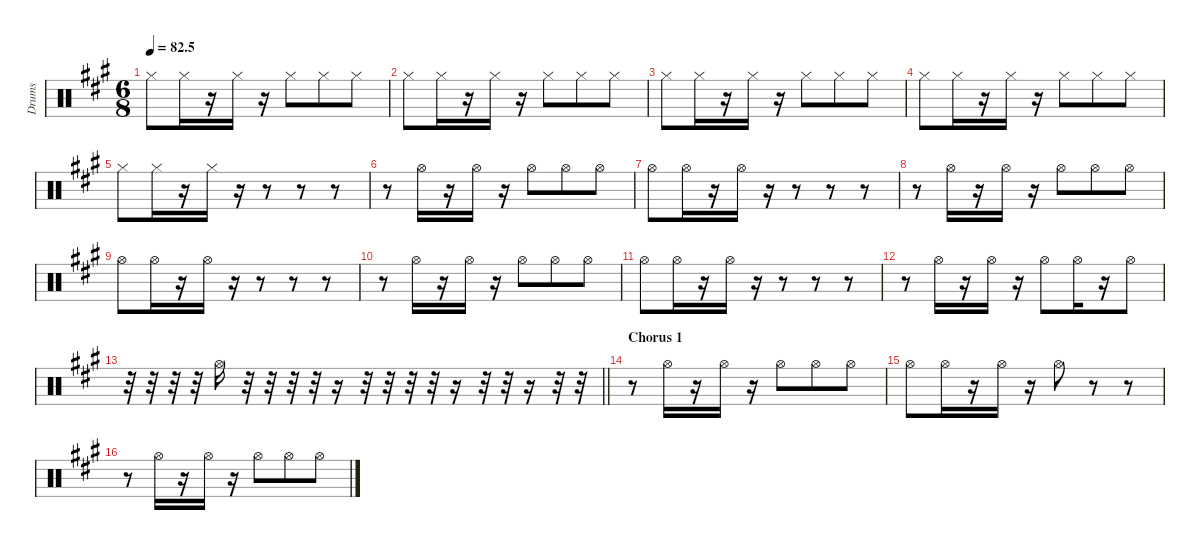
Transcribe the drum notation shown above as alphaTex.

\defaultSystemsLayout 4
\hideDynamics
\bracketExtendMode nobrackets
\otherSystemsTrackNameOrientation horizontal
\track ("Hihat" "Drums") {instrument percussion}
\staff {score}
\articulation defaults
\ts (6 8)
\tempo
82.5
\accidentals auto
\clef neutral
\ottava regular
\simile none
\scale
0.333333
\ks a "Hi-Hat (closed)"{acc forcenatural}.8{dy f} "Hi-Hat (closed)"{acc forcenatural}.16
r.16 "Hi-Hat (closed)"{acc forcenatural}.16 r.16 "Hi-Hat (closed)"{acc forcenatural}.8 "Hi-Hat (closed)"{acc forcenatural}.8 "Hi-Hat (closed)"{acc forcenatural}.8 |
\scale
0.333333 "Hi-Hat (closed)"{acc forcenatural}.8 "Hi-Hat (closed)"{acc forcenatural}.16 r.16 "Hi-Hat (closed)"{acc forcenatural}.16 r.16 "Hi-Hat (closed)"{acc forcenatural}.8 "Hi-Hat (closed)"{acc forcenatural}.8 "Hi-Hat (closed)"{acc forcenatural}.8 |
\scale
0.333333 "Hi-Hat (closed)"{acc forcenatural}.8 "Hi-Hat (closed)"{acc forcenatural}.16 r.16 "Hi-Hat (closed)"{acc forcenatural}.16 r.16 "Hi-Hat (closed)"{acc forcenatural}.8 "Hi-Hat (closed)"{acc forcenatural}.8 "Hi-Hat (closed)"{acc forcenatural}.8 |
\scale
0.333333 "Hi-Hat (closed)"{acc forcenatural}.8 "Hi-Hat (closed)"{acc forcenatural}.16 r.16 "Hi-Hat (closed)"{acc forcenatural}.16 r.16 "Hi-Hat (closed)"{acc forcenatural}.8 "Hi-Hat (closed)"{acc forcenatural}.8 "Hi-Hat (closed)"{acc forcenatural}.8 |
\scale
0.333333 "Hi-Hat (closed)"{acc forcenatural}.8 "Hi-Hat (closed)"{acc forcenatural}.16 r.16 "Hi-Hat (closed)"{acc forcenatural}.16 r.16 r.8 r.8 r.8 |
\scale
0.333333 r.8 "Hi-Hat (open)"{acc forcenatural}.16 r.16 "Hi-Hat (open)"{acc forcenatural}.16 r.16 "Hi-Hat (open)"{acc forcenatural}.8 "Hi-Hat (open)"{acc forcenatural}.8 "Hi-Hat (open)"{acc forcenatural}.8 |
\scale
0.333333 "Hi-Hat (open)"{acc forcenatural}.8 "Hi-Hat (open)"{acc forcenatural}.16 r.16 "Hi-Hat (open)"{acc forcenatural}.16 r.16 r.8 r.8 r.8 |
\scale
0.333333 r.8 "Hi-Hat (open)"{acc forcenatural}.16 r.16 "Hi-Hat (open)"{acc forcenatural}.16 r.16 "Hi-Hat (open)"{acc forcenatural}.8 "Hi-Hat (open)"{acc forcenatural}.8 "Hi-Hat (open)"{acc forcenatural}.8 |
\scale
0.333333 "Hi-Hat (open)"{acc forcenatural}.8 "Hi-Hat (open)"{acc forcenatural}.16 r.16 "Hi-Hat (open)"{acc forcenatural}.16 r.16 r.8 r.8 r.8 |
\scale
0.333333 r.8 "Hi-Hat (open)"{acc forcenatural}.16 r.16 "Hi-Hat (open)"{acc forcenatural}.16 r.16 "Hi-Hat (open)"{acc forcenatural}.8 "Hi-Hat (open)"{acc forcenatural}.8 "Hi-Hat (open)"{acc forcenatural}.8 |
\scale
0.333333 "Hi-Hat (open)"{acc forcenatural}.8 "Hi-Hat (open)"{acc forcenatural}.16 r.16 "Hi-Hat (open)"{acc forcenatural}.16 r.16 r.8 r.8 r.8 |
\scale
0.333333 r.8 "Hi-Hat (open)"{acc forcenatural}.16 r.16 "Hi-Hat (open)"{acc forcenatural}.16 r.16 "Hi-Hat (open)"{acc forcenatural}.8 "Hi-Hat (open)"{acc forcenatural}.16 r.16 "Hi-Hat (open)"{acc forcenatural}.8 |
\scale
0.333333
\barLineRight lightlight
r.32 r.32 r.32 r.32 "Hi-Hat (open)"{acc forcenatural}.16 r.32 r.32 r.32 r.32 r.16 r.32 r.32 r.32 r.32 r.16 r.32 r.32 r.16 r.32 r.32 |
\section ("" "Chorus 1")
\scale
0.333333 r.8 "Hi-Hat (open)"{acc forcenatural}.16 r.16 "Hi-Hat (open)"{acc forcenatural}.16 r.16 "Hi-Hat (open)"{acc forcenatural}.8 "Hi-Hat (open)"{acc forcenatural}.8 "Hi-Hat (open)"{acc forcenatural}.8 |
\scale
0.333333 "Hi-Hat (open)"{acc forcenatural}.8 "Hi-Hat (open)"{acc forcenatural}.16 r.16 "Hi-Hat (open)"{acc forcenatural}.16 r.16 "Hi-Hat (open)"{acc forcenatural}.8 r.8 r.8 |
\scale
0.333333 r.8 "Hi-Hat (open)"{acc forcenatural}.16 r.16 "Hi-Hat (open)"{acc forcenatural}.16 r.16 "Hi-Hat (open)"{acc forcenatural}.8 "Hi-Hat (open)"{acc forcenatural}.8 "Hi-Hat (open)"{acc forcenatural}.8
